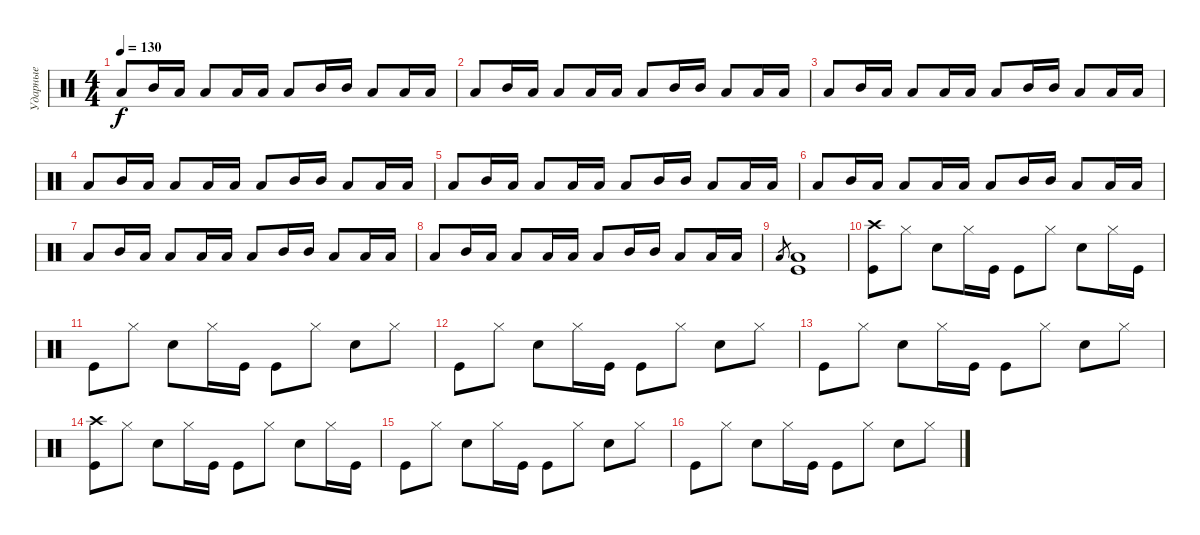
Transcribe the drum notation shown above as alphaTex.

\track ("Ударные" "Ударные") {instrument percussion}
\staff {score}
\articulation defaults
\ts (4 4)
\tempo 130
\clef neutral
\ks c "Low Floor Tom (hit)".8{dy f} "Mid Tom (hit)".16 "Low Tom (hit)".16 "Low Tom (hit)".8 "Low Tom (hit)".16 "Low Tom (hit)".16 "Low Floor Tom (hit)".8 "Mid Tom (hit)".16 "Mid Tom (hit)".16 "Low Tom (hit)".8 "Low Tom (hit)".16 "Low Tom (hit)".16
|
"Low Floor Tom (hit)".8 "Mid Tom (hit)".16 "Low Tom (hit)".16 "Low Tom (hit)".8 "Low Tom (hit)".16 "Low Tom (hit)".16 "Low Tom (hit)".8 "Mid Tom (hit)".16 "Mid Tom (hit)".16 "Low Tom (hit)".8 "Low Tom (hit)".16 "Low Tom (hit)".16 |
"Low Floor Tom (hit)".8 "Mid Tom (hit)".16 "Low Tom (hit)".16 "Low Tom (hit)".8 "Low Tom (hit)".16 "Low Tom (hit)".16 "Low Floor Tom (hit)".8 "Mid Tom (hit)".16 "Mid Tom (hit)".16 "Low Tom (hit)".8 "Low Tom (hit)".16 "Low Tom (hit)".16 |
"Low Floor Tom (hit)".8 "Mid Tom (hit)".16 "Low Tom (hit)".16 "Low Tom (hit)".8 "Low Tom (hit)".16 "Low Tom (hit)".16 "Low Tom (hit)".8 "Mid Tom (hit)".16 "Mid Tom (hit)".16 "Low Tom (hit)".8 "Low Tom (hit)".16 "Low Tom (hit)".16 |
"Low Floor Tom (hit)".8 "Mid Tom (hit)".16 "Low Tom (hit)".16 "Low Tom (hit)".8 "Low Tom (hit)".16 "Low Tom (hit)".16 "Low Floor Tom (hit)".8 "Mid Tom (hit)".16 "Mid Tom (hit)".16 "Low Tom (hit)".8 "Low Tom (hit)".16 "Low Tom (hit)".16 |
"Low Floor Tom (hit)".8 "Mid Tom (hit)".16 "Low Tom (hit)".16 "Low Tom (hit)".8 "Low Tom (hit)".16 "Low Tom (hit)".16 "Low Tom (hit)".8 "Mid Tom (hit)".16 "Mid Tom (hit)".16 "Low Tom (hit)".8 "Low Tom (hit)".16 "Low Tom (hit)".16 |
"Low Floor Tom (hit)".8 "Mid Tom (hit)".16 "Low Tom (hit)".16 "Low Tom (hit)".8 "Low Tom (hit)".16 "Low Tom (hit)".16 "Low Floor Tom (hit)".8 "Mid Tom (hit)".16 "Mid Tom (hit)".16 "Low Tom (hit)".8 "Low Tom (hit)".16 "Low Tom (hit)".16 |
"Low Floor Tom (hit)".8 "Mid Tom (hit)".16 "Low Tom (hit)".16 "Low Tom (hit)".8 "Low Tom (hit)".16 "Low Tom (hit)".16 "Low Tom (hit)".8 "Mid Tom (hit)".16 "Mid Tom (hit)".16 "Low Tom (hit)".8 "Low Tom (hit)".16 "Low Tom (hit)".16 |
"Low Floor Tom (hit)".8{gr} ("Low Floor Tom (hit)" "Kick (hit)").1 |
("Crash high (hit)" "Kick (hit)").8 "Hi-Hat (closed)".8 "Electric Snare (hit)".8 "Hi-Hat (closed)".16 "Kick (hit)".16 "Kick (hit)".8 "Hi-Hat (closed)".8 "Electric Snare (hit)".8 "Hi-Hat (closed)".16 "Kick (hit)".16 |
"Kick (hit)".8 "Hi-Hat (closed)".8 "Electric Snare (hit)".8 "Hi-Hat (closed)".16 "Kick (hit)".16 "Kick (hit)".8 "Hi-Hat (closed)".8 "Electric Snare (hit)".8 "Hi-Hat (closed)".8 |
"Kick (hit)".8 "Hi-Hat (closed)".8 "Electric Snare (hit)".8 "Hi-Hat (closed)".16 "Kick (hit)".16 "Kick (hit)".8 "Hi-Hat (closed)".8 "Electric Snare (hit)".8 "Hi-Hat (closed)".8 |
"Kick (hit)".8 "Hi-Hat (closed)".8 "Electric Snare (hit)".8 "Hi-Hat (closed)".16 "Kick (hit)".16 "Kick (hit)".8 "Hi-Hat (closed)".8 "Electric Snare (hit)".8 "Hi-Hat (closed)".8 |
("Crash high (hit)" "Kick (hit)").8 "Hi-Hat (closed)".8 "Electric Snare (hit)".8 "Hi-Hat (closed)".16 "Kick (hit)".16 "Kick (hit)".8 "Hi-Hat (closed)".8 "Electric Snare (hit)".8 "Hi-Hat (closed)".16 "Kick (hit)".16 |
"Kick (hit)".8 "Hi-Hat (closed)".8 "Electric Snare (hit)".8 "Hi-Hat (closed)".16 "Kick (hit)".16 "Kick (hit)".8 "Hi-Hat (closed)".8 "Electric Snare (hit)".8 "Hi-Hat (closed)".8 |
"Kick (hit)".8 "Hi-Hat (closed)".8 "Electric Snare (hit)".8 "Hi-Hat (closed)".16 "Kick (hit)".16 "Kick (hit)".8 "Hi-Hat (closed)".8 "Electric Snare (hit)".8 "Hi-Hat (closed)".8
